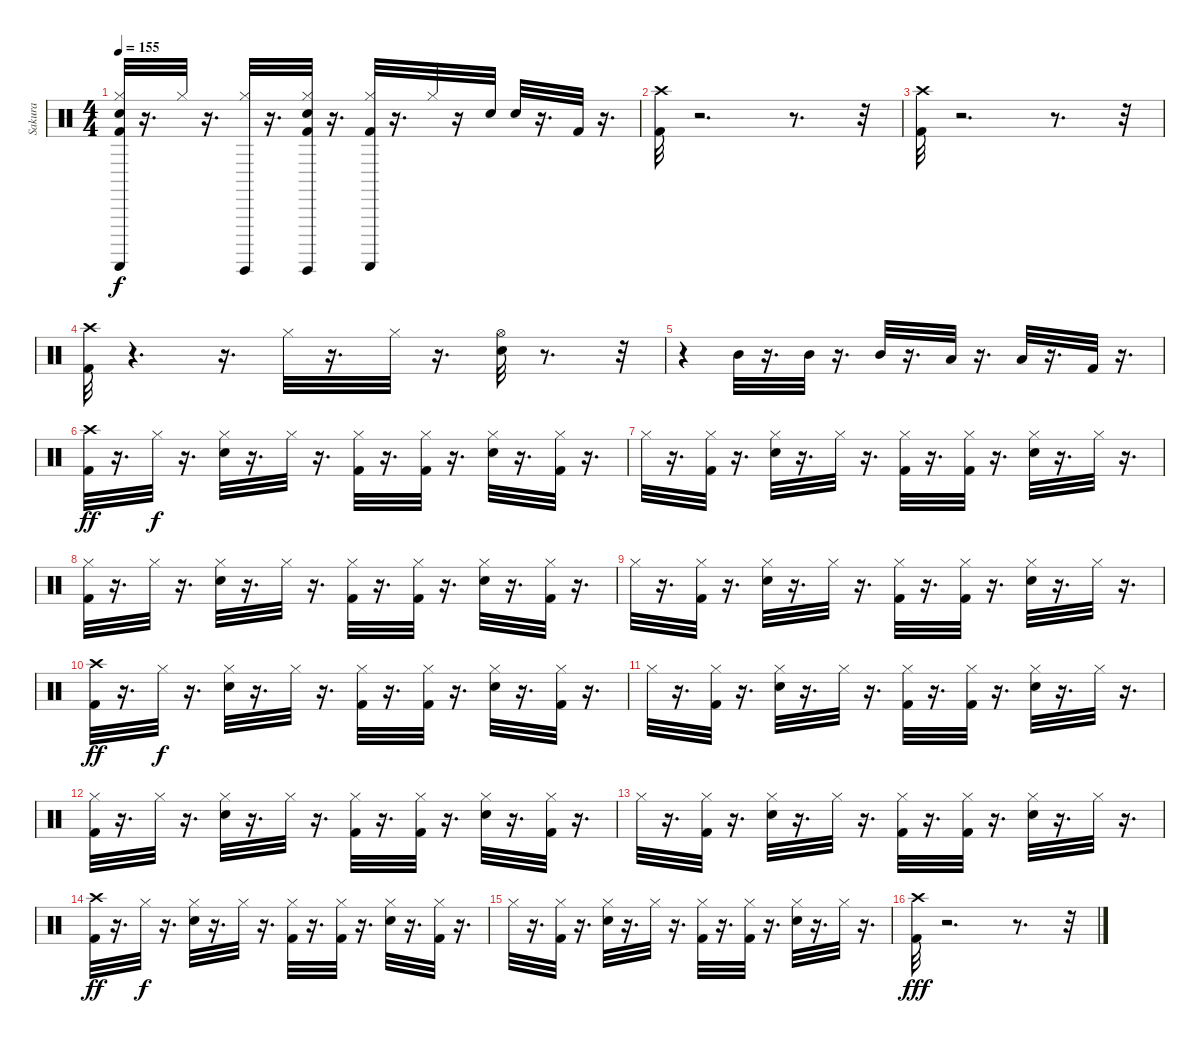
\track ("Sakura" "Sakura") {instrument percussion}
\staff {score}
\articulation defaults
\ts (4 4)
\tempo 155
\clef neutral
\ks c
("Hi-Hat (closed)" "Snare (hit) 2" "Kick (hit) 2" "Guiro (scrap-return)").32{dy f} r.16{d} "Hi-Hat (closed)".32 r.16{d} ("Hi-Hat (closed)" "Guiro (hit)").32 r.16{d} ("Hi-Hat (closed)" "Kick (hit) 2" "Snare (hit) 2" "Guiro (hit)").32 r.16{d} ("Hi-Hat (closed)" "Kick (hit) 2" "Guiro (scrap-return)").32 r.16{d} "Hi-Hat (closed)".32 r.16 "Snare (hit) 2".32 "Snare (hit) 2".32 r.16{d} "Kick (hit) 2".32 r.16{d} |
("Crash high (hit)" "Kick (hit) 2").32 r.2{d} r.8{d} r.32 |
("Kick (hit) 2" "Crash high (hit)").32 r.2{d} r.8{d} r.32 |
("Crash high (hit)" "Kick (hit) 2").32 r.4{d} r.16{d} "Hi-Hat (closed)".32 r.16{d} "Hi-Hat (closed)".32 r.16{d} ("Snare (hit) 2" "Hi-Hat (open)").32 r.8{d} r.32 |
r.4 "Mid Tom (hit)".32 r.16{d} "Mid Tom (hit)".32 r.16{d} "Mid Tom (hit)".32 r.16{d} "Low Tom (hit)".32 r.16{d} "Low Tom (hit)".32 r.16{d} "Kick (hit) 2".32 r.16{d} |
("Crash high (hit)" "Kick (hit) 2").32{dy ff} r.16{d} "Hi-Hat (closed)".32{dy f} r.16{d} ("Hi-Hat (closed)" "Snare (hit) 2").32 r.16{d} "Hi-Hat (closed)".32 r.16{d} ("Hi-Hat (closed)" "Kick (hit) 2").32 r.16{d} ("Hi-Hat (closed)" "Kick (hit) 2").32 r.16{d} ("Hi-Hat (closed)" "Snare (hit) 2").32 r.16{d} ("Hi-Hat (closed)" "Kick (hit) 2").32 r.16{d} |
"Hi-Hat (closed)".32 r.16{d} ("Hi-Hat (closed)" "Kick (hit) 2").32 r.16{d} ("Hi-Hat (closed)" "Snare (hit) 2").32 r.16{d} "Hi-Hat (closed)".32 r.16{d} ("Hi-Hat (closed)" "Kick (hit) 2").32 r.16{d} ("Hi-Hat (closed)" "Kick (hit) 2").32 r.16{d} ("Hi-Hat (closed)" "Snare (hit) 2").32 r.16{d} "Hi-Hat (closed)".32 r.16{d} |
("Hi-Hat (closed)" "Kick (hit) 2").32 r.16{d} "Hi-Hat (closed)".32 r.16{d} ("Hi-Hat (closed)" "Snare (hit) 2").32 r.16{d} "Hi-Hat (closed)".32 r.16{d} ("Hi-Hat (closed)" "Kick (hit) 2").32 r.16{d} ("Hi-Hat (closed)" "Kick (hit) 2").32 r.16{d} ("Hi-Hat (closed)" "Snare (hit) 2").32 r.16{d} ("Hi-Hat (closed)" "Kick (hit) 2").32 r.16{d} |
"Hi-Hat (closed)".32 r.16{d} ("Hi-Hat (closed)" "Kick (hit) 2").32 r.16{d} ("Hi-Hat (closed)" "Snare (hit) 2").32 r.16{d} "Hi-Hat (closed)".32 r.16{d} ("Hi-Hat (closed)" "Kick (hit) 2").32 r.16{d} ("Hi-Hat (closed)" "Kick (hit) 2").32 r.16{d} ("Hi-Hat (closed)" "Snare (hit) 2").32 r.16{d} "Hi-Hat (closed)".32 r.16{d} |
("Crash high (hit)" "Kick (hit) 2").32{dy ff} r.16{d} "Hi-Hat (closed)".32{dy f} r.16{d} ("Hi-Hat (closed)" "Snare (hit) 2").32 r.16{d} "Hi-Hat (closed)".32 r.16{d} ("Hi-Hat (closed)" "Kick (hit) 2").32 r.16{d} ("Hi-Hat (closed)" "Kick (hit) 2").32 r.16{d} ("Hi-Hat (closed)" "Snare (hit) 2").32 r.16{d} ("Hi-Hat (closed)" "Kick (hit) 2").32 r.16{d} |
"Hi-Hat (closed)".32 r.16{d} ("Hi-Hat (closed)" "Kick (hit) 2").32 r.16{d} ("Hi-Hat (closed)" "Snare (hit) 2").32 r.16{d} "Hi-Hat (closed)".32 r.16{d} ("Hi-Hat (closed)" "Kick (hit) 2").32 r.16{d} ("Hi-Hat (closed)" "Kick (hit) 2").32 r.16{d} ("Hi-Hat (closed)" "Snare (hit) 2").32 r.16{d} "Hi-Hat (closed)".32 r.16{d} |
("Hi-Hat (closed)" "Kick (hit) 2").32 r.16{d} "Hi-Hat (closed)".32 r.16{d} ("Hi-Hat (closed)" "Snare (hit) 2").32 r.16{d} "Hi-Hat (closed)".32 r.16{d} ("Hi-Hat (closed)" "Kick (hit) 2").32 r.16{d} ("Hi-Hat (closed)" "Kick (hit) 2").32 r.16{d} ("Hi-Hat (closed)" "Snare (hit) 2").32 r.16{d} ("Hi-Hat (closed)" "Kick (hit) 2").32 r.16{d} |
"Hi-Hat (closed)".32 r.16{d} ("Hi-Hat (closed)" "Kick (hit) 2").32 r.16{d} ("Hi-Hat (closed)" "Snare (hit) 2").32 r.16{d} "Hi-Hat (closed)".32 r.16{d} ("Hi-Hat (closed)" "Kick (hit) 2").32 r.16{d} ("Hi-Hat (closed)" "Kick (hit) 2").32 r.16{d} ("Hi-Hat (closed)" "Snare (hit) 2").32 r.16{d} "Hi-Hat (closed)".32 r.16{d} |
("Crash high (hit)" "Kick (hit) 2").32{dy ff} r.16{d} "Hi-Hat (closed)".32{dy f} r.16{d} ("Hi-Hat (closed)" "Snare (hit) 2").32 r.16{d} "Hi-Hat (closed)".32 r.16{d} ("Hi-Hat (closed)" "Kick (hit) 2").32 r.16{d} ("Hi-Hat (closed)" "Kick (hit) 2").32 r.16{d} ("Hi-Hat (closed)" "Snare (hit) 2").32 r.16{d} ("Hi-Hat (closed)" "Kick (hit) 2").32 r.16{d} |
"Hi-Hat (closed)".32 r.16{d} ("Hi-Hat (closed)" "Kick (hit) 2").32 r.16{d} ("Hi-Hat (closed)" "Snare (hit) 2").32 r.16{d} "Hi-Hat (closed)".32 r.16{d} ("Hi-Hat (closed)" "Kick (hit) 2").32 r.16{d} ("Hi-Hat (closed)" "Kick (hit) 2").32 r.16{d} ("Hi-Hat (closed)" "Snare (hit) 2").32 r.16{d} "Hi-Hat (closed)".32 r.16{d} |
("Crash high (hit)" "Kick (hit) 2").32{dy fff} r.2{d} r.8{d} r.32
